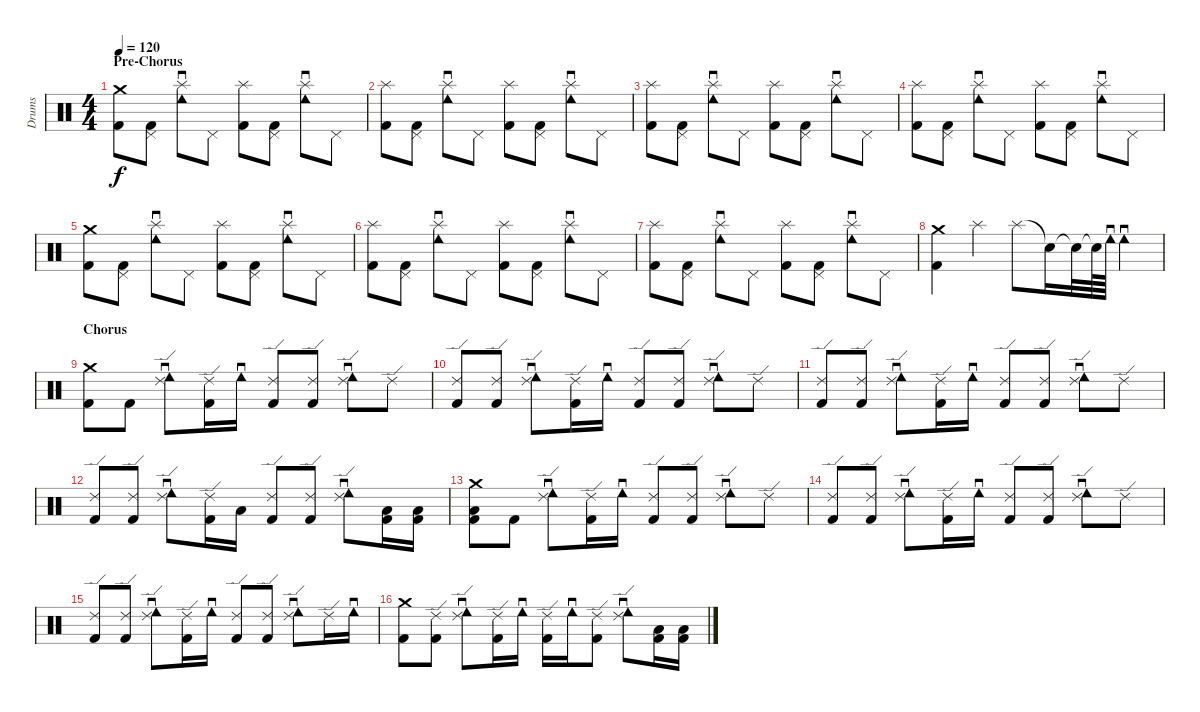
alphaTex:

\track ("Drums" "Drums") {instrument percussion}
\staff {score}
\articulation defaults
\ts (4 4)
\section ("" "Pre-Chorus")
\tempo 120
\clef neutral
\ks c
("Crash medium (hit)" "Kick (hit) 2").8{dy f} ("Pedal Hi-Hat (hit)" "Kick (hit) 2").8 ("Tambourine (roll)" "Splash (hit)").8 "Pedal Hi-Hat (hit)".8 ("Splash (hit)" "Kick (hit) 2").8 ("Pedal Hi-Hat (hit)" "Kick (hit) 2").8 ("Tambourine (roll)" "Splash (hit)").8 "Pedal Hi-Hat (hit)".8 |
("Splash (hit)" "Kick (hit) 2").8 ("Pedal Hi-Hat (hit)" "Kick (hit) 2").8 ("Tambourine (roll)" "Splash (hit)").8 "Pedal Hi-Hat (hit)".8 ("Splash (hit)" "Kick (hit) 2").8 ("Pedal Hi-Hat (hit)" "Kick (hit) 2").8 ("Tambourine (roll)" "Splash (hit)").8 "Pedal Hi-Hat (hit)".8 |
("Splash (hit)" "Kick (hit) 2").8 ("Pedal Hi-Hat (hit)" "Kick (hit) 2").8 ("Tambourine (roll)" "Splash (hit)").8 "Pedal Hi-Hat (hit)".8 ("Splash (hit)" "Kick (hit) 2").8 ("Pedal Hi-Hat (hit)" "Kick (hit) 2").8 ("Tambourine (roll)" "Splash (hit)").8 "Pedal Hi-Hat (hit)".8 |
("Splash (hit)" "Kick (hit) 2").8 ("Pedal Hi-Hat (hit)" "Kick (hit) 2").8 ("Tambourine (roll)" "Splash (hit)").8 "Pedal Hi-Hat (hit)".8 ("Splash (hit)" "Kick (hit) 2").8 ("Pedal Hi-Hat (hit)" "Kick (hit) 2").8 ("Tambourine (roll)" "Splash (hit)").8 "Pedal Hi-Hat (hit)".8 |
("Crash medium (hit)" "Kick (hit) 2").8 ("Pedal Hi-Hat (hit)" "Kick (hit) 2").8 ("Tambourine (roll)" "Splash (hit)").8 "Pedal Hi-Hat (hit)".8 ("Splash (hit)" "Kick (hit) 2").8 ("Pedal Hi-Hat (hit)" "Kick (hit) 2").8 ("Tambourine (roll)" "Splash (hit)").8 "Pedal Hi-Hat (hit)".8 |
("Splash (hit)" "Kick (hit) 2").8 ("Pedal Hi-Hat (hit)" "Kick (hit) 2").8 ("Tambourine (roll)" "Splash (hit)").8 "Pedal Hi-Hat (hit)".8 ("Splash (hit)" "Kick (hit) 2").8 ("Pedal Hi-Hat (hit)" "Kick (hit) 2").8 ("Tambourine (roll)" "Splash (hit)").8 "Pedal Hi-Hat (hit)".8 |
("Splash (hit)" "Kick (hit) 2").8 ("Pedal Hi-Hat (hit)" "Kick (hit) 2").8 ("Tambourine (roll)" "Splash (hit)").8 "Pedal Hi-Hat (hit)".8 ("Splash (hit)" "Kick (hit) 2").8 ("Pedal Hi-Hat (hit)" "Kick (hit) 2").8 ("Tambourine (roll)" "Splash (hit)").8 "Pedal Hi-Hat (hit)".8 |
("Crash medium (hit)" "Kick (hit) 2").4 "Splash (hit)".4 "Splash (hit)".8 "Snare (hit)"{t}.16 "Snare (hit)"{t}.32 "Snare (hit)"{t}.64 "Tambourine (roll)".64 "Tambourine (roll)".4 |
\section ("" "Chorus")
("Crash medium (hit)" "Kick (hit) 2").8 "Kick (hit) 2".8 ("Tambourine (roll)" "Ride (edge) 2").8 ("Ride (edge) 2" "Kick (hit) 2").16 "Tambourine (roll)".16 ("Ride (edge) 2" "Kick (hit) 2").8 ("Ride (edge) 2" "Kick (hit) 2").8 ("Tambourine (roll)" "Ride (edge) 2").8 "Ride (edge) 2".8 |
("Ride (edge) 2" "Kick (hit) 2").8 ("Ride (edge) 2" "Kick (hit) 2").8 ("Tambourine (roll)" "Ride (edge) 2").8 ("Ride (edge) 2" "Kick (hit) 2").16 "Tambourine (roll)".16 ("Ride (edge) 2" "Kick (hit) 2").8 ("Ride (edge) 2" "Kick (hit) 2").8 ("Tambourine (roll)" "Ride (edge) 2").8 "Ride (edge) 2".8 |
("Ride (edge) 2" "Kick (hit) 2").8 ("Ride (edge) 2" "Kick (hit) 2").8 ("Tambourine (roll)" "Ride (edge) 2").8 ("Ride (edge) 2" "Kick (hit) 2").16 "Tambourine (roll)".16 ("Ride (edge) 2" "Kick (hit) 2").8 ("Ride (edge) 2" "Kick (hit) 2").8 ("Tambourine (roll)" "Ride (edge) 2").8 "Ride (edge) 2".8 |
("Ride (edge) 2" "Kick (hit) 2").8 ("Ride (edge) 2" "Kick (hit) 2").8 ("Tambourine (roll)" "Ride (edge) 2").8 ("Ride (edge) 2" "Kick (hit) 2").16 "Low Floor Tom (hit)".16 ("Ride (edge) 2" "Kick (hit) 2").8 ("Ride (edge) 2" "Kick (hit) 2").8 ("Tambourine (roll)" "Ride (edge) 2").8 ("Low Floor Tom (hit)" "Kick (hit) 2").16 ("Low Floor Tom (hit)" "Kick (hit) 2").16 |
("Crash medium (hit)" "Low Floor Tom (hit)" "Kick (hit) 2").8 "Kick (hit) 2".8 ("Tambourine (roll)" "Ride (edge) 2").8 ("Ride (edge) 2" "Kick (hit) 2").16 "Tambourine (roll)".16 ("Ride (edge) 2" "Kick (hit) 2").8 ("Ride (edge) 2" "Kick (hit) 2").8 ("Tambourine (roll)" "Ride (edge) 2").8 "Ride (edge) 2".8 |
("Ride (edge) 2" "Kick (hit) 2").8 ("Ride (edge) 2" "Kick (hit) 2").8 ("Tambourine (roll)" "Ride (edge) 2").8 ("Ride (edge) 2" "Kick (hit) 2").16 "Tambourine (roll)".16 ("Ride (edge) 2" "Kick (hit) 2").8 ("Ride (edge) 2" "Kick (hit) 2").8 ("Tambourine (roll)" "Ride (edge) 2").8 "Ride (edge) 2".8 |
("Ride (edge) 2" "Kick (hit) 2").8 ("Ride (edge) 2" "Kick (hit) 2").8 ("Tambourine (roll)" "Ride (edge) 2").8 ("Ride (edge) 2" "Kick (hit) 2").16 "Tambourine (roll)".16 ("Ride (edge) 2" "Kick (hit) 2").8 ("Ride (edge) 2" "Kick (hit) 2").8 ("Tambourine (roll)" "Ride (edge) 2").8 "Ride (edge) 2".16 "Tambourine (roll)".16 |
("Crash medium (hit)" "Kick (hit) 2").8 ("Ride (edge) 2" "Kick (hit) 2").8 ("Tambourine (roll)" "Ride (edge) 2").8 ("Ride (edge) 2" "Kick (hit) 2").16 "Tambourine (roll)".16 ("Ride (edge) 2" "Kick (hit) 2").16 "Tambourine (roll)".16 ("Ride (edge) 2" "Kick (hit) 2").8 ("Tambourine (roll)" "Ride (edge) 2").8 ("Low Floor Tom (hit)" "Kick (hit) 2").16 ("Low Floor Tom (hit)" "Kick (hit) 2").16
